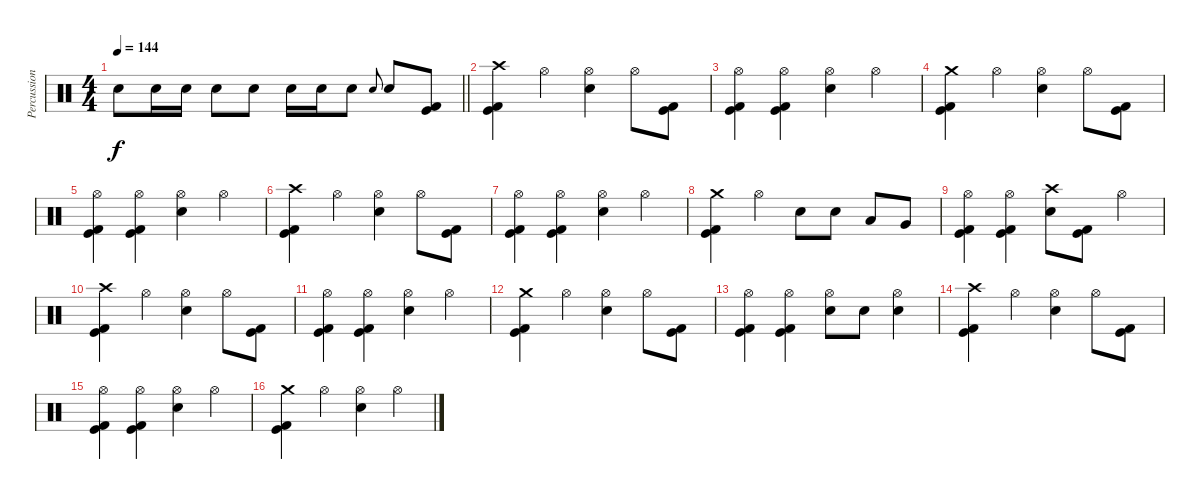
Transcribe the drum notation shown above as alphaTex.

\track ("Percussion" "Percussion") {instrument percussion}
\staff {score}
\articulation defaults
\ts (4 4)
\tempo 144
\clef neutral
\barLineRight lightlight
\ks c "Electric Snare (hit)".8{dy f} "Electric Snare (hit)".16 "Electric Snare (hit)".16 "Electric Snare (hit)".8 "Electric Snare (hit)".8 "Electric Snare (hit)".16 "Electric Snare (hit)".16 "Electric Snare (hit)".8 "Electric Snare (hit)".8{gr onbeat} "Electric Snare (hit)".8
("Kick (hit)" "Kick (hit) 2").8 |
\section ("" "")
("Crash high (hit)" "Kick (hit)" "Kick (hit) 2").4 "Hi-Hat (open)".4 ("Hi-Hat (open)" "Electric Snare (hit)").4 "Hi-Hat (open)".8 ("Kick (hit)" "Kick (hit) 2").8 |
("Hi-Hat (open)" "Kick (hit)" "Kick (hit) 2").4 ("Hi-Hat (open)" "Kick (hit)" "Kick (hit) 2").4 ("Hi-Hat (open)" "Electric Snare (hit)").4 "Hi-Hat (open)".4 |
("Crash medium (hit)" "Kick (hit)" "Kick (hit) 2").4 "Hi-Hat (open)".4 ("Hi-Hat (open)" "Electric Snare (hit)").4 "Hi-Hat (open)".8 ("Kick (hit)" "Kick (hit) 2").8 |
("Hi-Hat (open)" "Kick (hit)" "Kick (hit) 2").4 ("Hi-Hat (open)" "Kick (hit)" "Kick (hit) 2").4 ("Hi-Hat (open)" "Electric Snare (hit)").4 "Hi-Hat (open)".4 |
("Crash high (hit)" "Kick (hit)" "Kick (hit) 2").4 "Hi-Hat (open)".4 ("Hi-Hat (open)" "Electric Snare (hit)").4 "Hi-Hat (open)".8 ("Kick (hit)" "Kick (hit) 2").8 |
("Hi-Hat (open)" "Kick (hit)" "Kick (hit) 2").4 ("Hi-Hat (open)" "Kick (hit)" "Kick (hit) 2").4 ("Hi-Hat (open)" "Electric Snare (hit)").4 "Hi-Hat (open)".4 |
("Crash medium (hit)" "Kick (hit)" "Kick (hit) 2").4 "Hi-Hat (open)".4 "Electric Snare (hit)".8 "Electric Snare (hit)".8 "Low Tom (hit)".8 "Very Low Tom (hit)".8 |
("Hi-Hat (open)" "Kick (hit)" "Kick (hit) 2").4 ("Hi-Hat (open)" "Kick (hit)" "Kick (hit) 2").4 ("Crash high (hit)" "Electric Snare (hit)").8 ("Kick (hit)" "Kick (hit) 2").8 "Hi-Hat (open)".4 |
("Crash high (hit)" "Kick (hit)" "Kick (hit) 2").4 "Hi-Hat (open)".4 ("Hi-Hat (open)" "Electric Snare (hit)").4 "Hi-Hat (open)".8 ("Kick (hit)" "Kick (hit) 2").8 |
("Hi-Hat (open)" "Kick (hit)" "Kick (hit) 2").4 ("Hi-Hat (open)" "Kick (hit)" "Kick (hit) 2").4 ("Hi-Hat (open)" "Electric Snare (hit)").4 "Hi-Hat (open)".4 |
("Crash medium (hit)" "Kick (hit)" "Kick (hit) 2").4 "Hi-Hat (open)".4 ("Hi-Hat (open)" "Electric Snare (hit)").4 "Hi-Hat (open)".8 ("Kick (hit)" "Kick (hit) 2").8 |
("Hi-Hat (open)" "Kick (hit)" "Kick (hit) 2").4 ("Hi-Hat (open)" "Kick (hit)" "Kick (hit) 2").4 ("Hi-Hat (open)" "Electric Snare (hit)").8 "Electric Snare (hit)".8 ("Hi-Hat (open)" "Electric Snare (hit)").4 |
("Crash high (hit)" "Kick (hit)" "Kick (hit) 2").4 "Hi-Hat (open)".4 ("Hi-Hat (open)" "Electric Snare (hit)").4 "Hi-Hat (open)".8 ("Kick (hit)" "Kick (hit) 2").8 |
("Hi-Hat (open)" "Kick (hit)" "Kick (hit) 2").4 ("Hi-Hat (open)" "Kick (hit)" "Kick (hit) 2").4 ("Hi-Hat (open)" "Electric Snare (hit)").4 "Hi-Hat (open)".4 |
("Crash medium (hit)" "Kick (hit)" "Kick (hit) 2").4 "Hi-Hat (open)".4 ("Hi-Hat (open)" "Electric Snare (hit)").4 "Hi-Hat (open)".4
